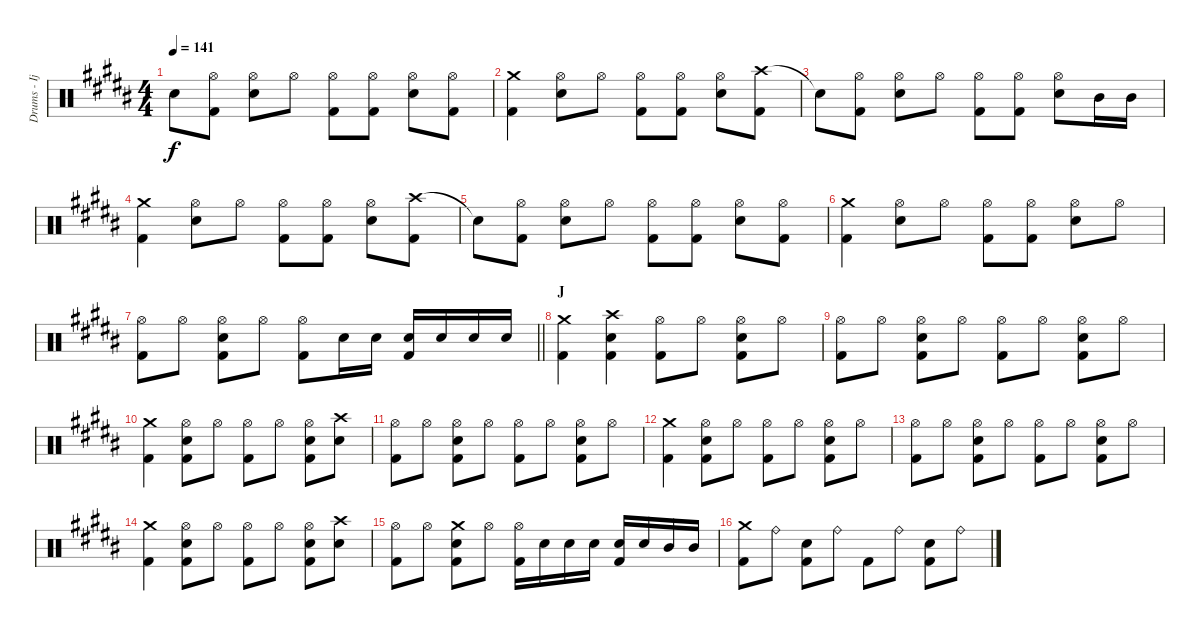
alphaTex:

\track ("Drums - Ijichi" "Drums - Ij") {instrument percussion}
\staff {score}
\articulation defaults
\ts (4 4)
\tempo 141
\clef neutral
\ks b "Snare (hit)"{t}.8{dy f}
("Hi-Hat (open)" "Kick (hit) 2").8 ("Hi-Hat (open)" "Electric Snare (hit)").8 "Hi-Hat (open)".8 ("Hi-Hat (open)" "Kick (hit) 2").8 ("Hi-Hat (open)" "Kick (hit) 2").8 ("Hi-Hat (open)" "Electric Snare (hit)").8 ("Hi-Hat (open)" "Kick (hit) 2").8 |
("Crash medium (hit)" "Kick (hit) 2").4 ("Hi-Hat (open)" "Electric Snare (hit)").8 "Hi-Hat (open)".8 ("Hi-Hat (open)" "Kick (hit) 2").8 ("Hi-Hat (open)" "Kick (hit) 2").8 ("Hi-Hat (open)" "Electric Snare (hit)").8 ("Crash high (hit)" "Kick (hit) 2").8 |
"Snare (hit)"{t}.8 ("Hi-Hat (open)" "Kick (hit) 2").8 ("Hi-Hat (open)" "Electric Snare (hit)").8 "Hi-Hat (open)".8 ("Hi-Hat (open)" "Kick (hit) 2").8 ("Hi-Hat (open)" "Kick (hit) 2").8 ("Hi-Hat (open)" "Electric Snare (hit)").8 "Mid Tom (hit)".16 "Mid Tom (hit)".16 |
("Crash medium (hit)" "Kick (hit) 2").4 ("Hi-Hat (open)" "Electric Snare (hit)").8 "Hi-Hat (open)".8 ("Hi-Hat (open)" "Kick (hit) 2").8 ("Hi-Hat (open)" "Kick (hit) 2").8 ("Hi-Hat (open)" "Electric Snare (hit)").8 ("Crash high (hit)" "Kick (hit) 2").8 |
"Snare (hit)"{t}.8 ("Hi-Hat (open)" "Kick (hit) 2").8 ("Hi-Hat (open)" "Electric Snare (hit)").8 "Hi-Hat (open)".8 ("Hi-Hat (open)" "Kick (hit) 2").8 ("Hi-Hat (open)" "Kick (hit) 2").8 ("Hi-Hat (open)" "Electric Snare (hit)").8 ("Hi-Hat (open)" "Kick (hit) 2").8 |
("Crash medium (hit)" "Kick (hit) 2").4 ("Hi-Hat (open)" "Electric Snare (hit)").8 "Hi-Hat (open)".8 ("Hi-Hat (open)" "Kick (hit) 2").8 ("Hi-Hat (open)" "Kick (hit) 2").8 ("Hi-Hat (open)" "Electric Snare (hit)").8 "Hi-Hat (open)".8 |
\barLineRight lightlight
("Hi-Hat (open)" "Kick (hit) 2").8 "Hi-Hat (open)".8 ("Hi-Hat (open)" "Electric Snare (hit)" "Kick (hit) 2").8 "Hi-Hat (open)".8 ("Hi-Hat (open)" "Kick (hit) 2").8 "Electric Snare (hit)".16 "Electric Snare (hit)".16 ("Electric Snare (hit)" "Kick (hit) 2").16 "Electric Snare (hit)".16 "Electric Snare (hit)".16 "Electric Snare (hit)".16 |
\section ("" "J")
("Crash medium (hit)" "Kick (hit) 2").4 ("Crash high (hit)" "Electric Snare (hit)" "Kick (hit) 2").4 ("Hi-Hat (open)" "Kick (hit) 2").8 "Hi-Hat (open)".8 ("Hi-Hat (open)" "Electric Snare (hit)" "Kick (hit) 2").8 "Hi-Hat (open)".8 |
("Hi-Hat (open)" "Kick (hit) 2").8 "Hi-Hat (open)".8 ("Hi-Hat (open)" "Electric Snare (hit)" "Kick (hit) 2").8 "Hi-Hat (open)".8 ("Hi-Hat (open)" "Kick (hit) 2").8 "Hi-Hat (open)".8 ("Hi-Hat (open)" "Electric Snare (hit)" "Kick (hit) 2").8 "Hi-Hat (open)".8 |
("Crash medium (hit)" "Kick (hit) 2").4 ("Hi-Hat (open)" "Electric Snare (hit)" "Kick (hit) 2").8 "Hi-Hat (open)".8 ("Hi-Hat (open)" "Kick (hit) 2").8 "Hi-Hat (open)".8 ("Hi-Hat (open)" "Electric Snare (hit)" "Kick (hit) 2").8 ("Crash high (hit)" "Electric Snare (hit)").8 |
("Hi-Hat (open)" "Kick (hit) 2").8 "Hi-Hat (open)".8 ("Hi-Hat (open)" "Electric Snare (hit)" "Kick (hit) 2").8 "Hi-Hat (open)".8 ("Hi-Hat (open)" "Kick (hit) 2").8 "Hi-Hat (open)".8 ("Hi-Hat (open)" "Electric Snare (hit)" "Kick (hit) 2").8 "Hi-Hat (open)".8 |
("Crash medium (hit)" "Kick (hit) 2").4 ("Hi-Hat (open)" "Electric Snare (hit)" "Kick (hit) 2").8 "Hi-Hat (open)".8 ("Hi-Hat (open)" "Kick (hit) 2").8 "Hi-Hat (open)".8 ("Hi-Hat (open)" "Electric Snare (hit)" "Kick (hit) 2").8 "Hi-Hat (open)".8 |
("Hi-Hat (open)" "Kick (hit) 2").8 "Hi-Hat (open)".8 ("Hi-Hat (open)" "Electric Snare (hit)" "Kick (hit) 2").8 "Hi-Hat (open)".8 ("Hi-Hat (open)" "Kick (hit) 2").8 "Hi-Hat (open)".8 ("Hi-Hat (open)" "Electric Snare (hit)" "Kick (hit) 2").8 "Hi-Hat (open)".8 |
("Crash medium (hit)" "Kick (hit) 2").4 ("Hi-Hat (open)" "Electric Snare (hit)" "Kick (hit) 2").8 "Hi-Hat (open)".8 ("Hi-Hat (open)" "Kick (hit) 2").8 "Hi-Hat (open)".8 ("Hi-Hat (open)" "Electric Snare (hit)" "Kick (hit) 2").8 ("Crash high (hit)" "Electric Snare (hit)").8 |
("Hi-Hat (open)" "Kick (hit) 2").8 "Hi-Hat (open)".8 ("Crash medium (hit)" "Electric Snare (hit)" "Kick (hit) 2").8 "Hi-Hat (open)".8 ("Hi-Hat (open)" "Kick (hit) 2").16 "Electric Snare (hit)".16 "Electric Snare (hit)".16 "Electric Snare (hit)".16 ("Electric Snare (hit)" "Kick (hit) 2").16 "Electric Snare (hit)".16 "Mid Tom (hit)".16 "Mid Tom (hit)".16 |
("Crash medium (hit)" "Kick (hit) 2").8 "Ride (bell)".8 ("Electric Snare (hit)" "Kick (hit) 2").8 "Ride (bell)".8 "Kick (hit) 2".8 "Ride (bell)".8 ("Electric Snare (hit)" "Kick (hit) 2").8 "Ride (bell)".8
